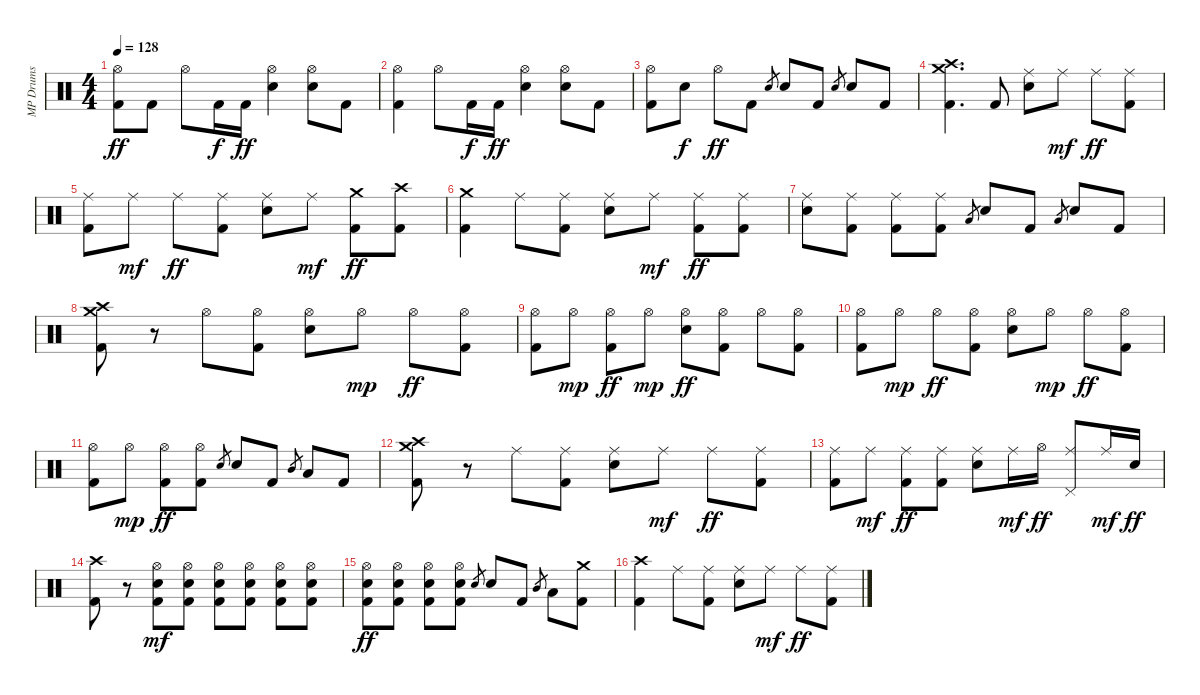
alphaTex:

\track ("MP Drums" "MP Drums") {instrument percussion}
\staff {score}
\articulation defaults
\ts (4 4)
\tempo 128
\clef neutral
\ks c
("Hi-Hat (open)" "Kick (hit) 2").8{dy ff} "Kick (hit) 2".8 "Hi-Hat (open)".8 "Kick (hit) 2".16{dy f} "Kick (hit) 2".16{dy ff} ("Hi-Hat (open)" "Snare (hit) 2").4 ("Hi-Hat (open)" "Snare (hit) 2").8 "Kick (hit) 2".8 |
("Hi-Hat (open)" "Kick (hit) 2").4 "Hi-Hat (open)".8 "Kick (hit) 2".16{dy f} "Kick (hit) 2".16{dy ff} ("Hi-Hat (open)" "Snare (hit) 2").4 ("Hi-Hat (open)" "Snare (hit) 2").8 "Kick (hit) 2".8 |
("Hi-Hat (open)" "Kick (hit) 2").8 "Snare (hit) 2".8{dy f} "Hi-Hat (open)".8{dy ff} "Kick (hit) 2".8 "Snare (hit) 2".8{gr} "Snare (hit) 2".8 "Kick (hit) 2".8 "Snare (hit) 2".8{gr} "Snare (hit) 2".8 "Kick (hit) 2".8 |
("Crash high (hit)" "Crash medium (hit)" "Kick (hit) 2").4{d} "Kick (hit) 2".8 ("Ride (middle)" "Snare (hit) 2").8 "Ride (middle)".8{dy mf} "Ride (middle)".8{dy ff} ("Ride (middle)" "Kick (hit) 2").8 |
("Ride (middle)" "Kick (hit) 2").8 "Ride (middle)".8{dy mf} "Ride (middle)".8{dy ff} ("Ride (middle)" "Kick (hit) 2").8 ("Ride (middle)" "Snare (hit) 2").8 "Ride (middle)".8{dy mf} ("Crash medium (hit)" "Kick (hit) 2").8{dy ff} ("Crash high (hit)" "Kick (hit) 2").8 |
("Crash medium (hit)" "Kick (hit) 2").4 "Ride (middle)".8 ("Ride (middle)" "Kick (hit) 2").8 ("Ride (middle)" "Snare (hit) 2").8 "Ride (middle)".8{dy mf} ("Ride (middle)" "Kick (hit) 2").8{dy ff} ("Ride (middle)" "Kick (hit) 2").8 |
("Ride (middle)" "Snare (hit) 2").8 ("Ride (middle)" "Kick (hit) 2").8 ("Ride (middle)" "Kick (hit) 2").8 ("Ride (middle)" "Kick (hit) 2").8 "Low Tom (hit)".8{gr} "Snare (hit) 2".8 "Kick (hit) 2".8 "Low Tom (hit)".8{gr} "Snare (hit) 2".8 "Kick (hit) 2".8 |
("Crash high (hit)" "Crash medium (hit)" "Kick (hit) 2").8 r.8 "Hi-Hat (open)".8 ("Hi-Hat (open)" "Kick (hit) 2").8 ("Hi-Hat (open)" "Snare (hit) 2").8 "Hi-Hat (open)".8{dy mp} "Hi-Hat (open)".8{dy ff} ("Hi-Hat (open)" "Kick (hit) 2").8 |
("Hi-Hat (open)" "Kick (hit) 2").8 "Hi-Hat (open)".8{dy mp} ("Hi-Hat (open)" "Kick (hit) 2").8{dy ff} "Hi-Hat (open)".8{dy mp} ("Hi-Hat (open)" "Snare (hit) 2").8{dy ff} ("Hi-Hat (open)" "Kick (hit) 2").8 "Hi-Hat (open)".8 ("Hi-Hat (open)" "Kick (hit) 2").8 |
("Hi-Hat (open)" "Kick (hit) 2").8 "Hi-Hat (open)".8{dy mp} "Hi-Hat (open)".8{dy ff} ("Hi-Hat (open)" "Kick (hit) 2").8 ("Hi-Hat (open)" "Snare (hit) 2").8 "Hi-Hat (open)".8{dy mp} "Hi-Hat (open)".8{dy ff} ("Hi-Hat (open)" "Kick (hit) 2").8 |
("Hi-Hat (open)" "Kick (hit) 2").8 "Hi-Hat (open)".8{dy mp} ("Hi-Hat (open)" "Kick (hit) 2").8{dy ff} ("Hi-Hat (open)" "Kick (hit) 2").8 "Snare (hit) 2".8{gr} "Snare (hit) 2".8 "Kick (hit) 2".8 "Mid Tom (hit)".8{gr} "Low Tom (hit)".8 "Kick (hit) 2".8 |
("Crash high (hit)" "Crash medium (hit)" "Kick (hit) 2").8 r.8 "Ride (middle)".8 ("Ride (middle)" "Kick (hit) 2").8 ("Ride (middle)" "Snare (hit) 2").8 "Ride (middle)".8{dy mf} "Ride (middle)".8{dy ff} ("Ride (middle)" "Kick (hit) 2").8 |
("Ride (middle)" "Kick (hit) 2").8 "Ride (middle)".8{dy mf} ("Ride (middle)" "Kick (hit) 2").8{dy ff} ("Ride (middle)" "Kick (hit) 2").8 ("Ride (middle)" "Snare (hit) 2").8 "Ride (middle)".16{dy mf} "Hi-Hat (open)".16{dy ff} ("Ride (middle)" "Pedal Hi-Hat (hit)").8 "Ride (middle)".16{dy mf} "Snare (hit) 2".16{dy ff} |
("Crash high (hit)" "Kick (hit) 2").8 r.8 ("Hi-Hat (open)" "Snare (hit) 2" "Kick (hit) 2").8{dy mf} ("Hi-Hat (open)" "Snare (hit) 2" "Kick (hit) 2").8 ("Hi-Hat (open)" "Snare (hit) 2" "Kick (hit) 2").8 ("Hi-Hat (open)" "Snare (hit) 2" "Kick (hit) 2").8 ("Hi-Hat (open)" "Snare (hit) 2" "Kick (hit) 2").8 ("Hi-Hat (open)" "Snare (hit) 2" "Kick (hit) 2").8 |
("Hi-Hat (open)" "Snare (hit) 2" "Kick (hit) 2").8{dy ff} ("Hi-Hat (open)" "Snare (hit) 2" "Kick (hit) 2").8 ("Hi-Hat (open)" "Snare (hit) 2" "Kick (hit) 2").8 ("Hi-Hat (open)" "Snare (hit) 2" "Kick (hit) 2").8 "Snare (hit) 2".8{gr} "Snare (hit) 2".8 "Kick (hit) 2".8 "Mid Tom (hit)".8{gr} "Low Tom (hit)".8 ("Crash medium (hit)" "Kick (hit) 2").8 |
("Crash high (hit)" "Kick (hit) 2").4 "Ride (middle)".8 ("Ride (middle)" "Kick (hit) 2").8 ("Ride (middle)" "Snare (hit) 2").8 "Ride (middle)".8{dy mf} "Ride (middle)".8{dy ff} ("Ride (middle)" "Kick (hit) 2").8
